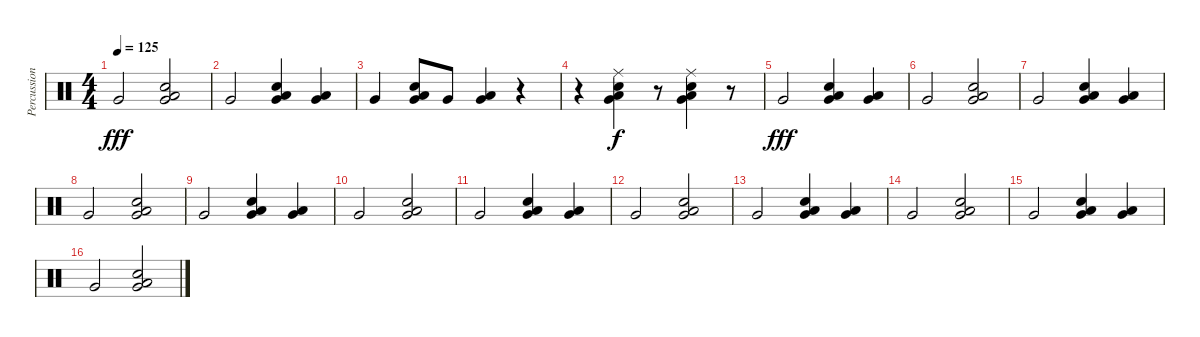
\track ("Percussion" "Percussion") {instrument percussion}
\staff {score}
\articulation defaults
\ts (4 4)
\tempo 125
\clef neutral
\ks c "Very Low Tom (hit)".2{dy fff}
("Very Low Tom (hit)" "Snare (hit) 2" "Low Floor Tom (hit)").2 |
"Very Low Tom (hit)".2 ("Very Low Tom (hit)" "Snare (hit) 2" "Low Floor Tom (hit)").4 ("Very Low Tom (hit)" "Low Floor Tom (hit)").4 |
"Very Low Tom (hit)".4 ("Very Low Tom (hit)" "Snare (hit) 2" "Low Floor Tom (hit)").8 "Very Low Tom (hit)".8 ("Very Low Tom (hit)" "Low Floor Tom (hit)").4 r.4 |
r.4 ("Very Low Tom (hit)" "Low Floor Tom (hit)" "Ride (middle)" "Snare (hit) 2").4{dy f} r.8 ("Very Low Tom (hit)" "Low Floor Tom (hit)" "Ride (middle)" "Snare (hit) 2").4 r.8 |
"Very Low Tom (hit)".2{dy fff} ("Very Low Tom (hit)" "Snare (hit) 2" "Low Floor Tom (hit)").4 ("Very Low Tom (hit)" "Low Floor Tom (hit)").4 |
"Very Low Tom (hit)".2 ("Very Low Tom (hit)" "Snare (hit) 2" "Low Floor Tom (hit)").2 |
"Very Low Tom (hit)".2 ("Very Low Tom (hit)" "Snare (hit) 2" "Low Floor Tom (hit)").4 ("Very Low Tom (hit)" "Low Floor Tom (hit)").4 |
"Very Low Tom (hit)".2 ("Very Low Tom (hit)" "Snare (hit) 2" "Low Floor Tom (hit)").2 |
"Very Low Tom (hit)".2 ("Very Low Tom (hit)" "Snare (hit) 2" "Low Floor Tom (hit)").4 ("Very Low Tom (hit)" "Low Floor Tom (hit)").4 |
"Very Low Tom (hit)".2 ("Very Low Tom (hit)" "Snare (hit) 2" "Low Floor Tom (hit)").2 |
"Very Low Tom (hit)".2 ("Very Low Tom (hit)" "Snare (hit) 2" "Low Floor Tom (hit)").4 ("Very Low Tom (hit)" "Low Floor Tom (hit)").4 |
"Very Low Tom (hit)".2 ("Very Low Tom (hit)" "Snare (hit) 2" "Low Floor Tom (hit)").2 |
"Very Low Tom (hit)".2 ("Very Low Tom (hit)" "Snare (hit) 2" "Low Floor Tom (hit)").4 ("Very Low Tom (hit)" "Low Floor Tom (hit)").4 |
"Very Low Tom (hit)".2 ("Very Low Tom (hit)" "Snare (hit) 2" "Low Floor Tom (hit)").2 |
"Very Low Tom (hit)".2 ("Very Low Tom (hit)" "Snare (hit) 2" "Low Floor Tom (hit)").4 ("Very Low Tom (hit)" "Low Floor Tom (hit)").4 |
"Very Low Tom (hit)".2 ("Very Low Tom (hit)" "Snare (hit) 2" "Low Floor Tom (hit)").2
